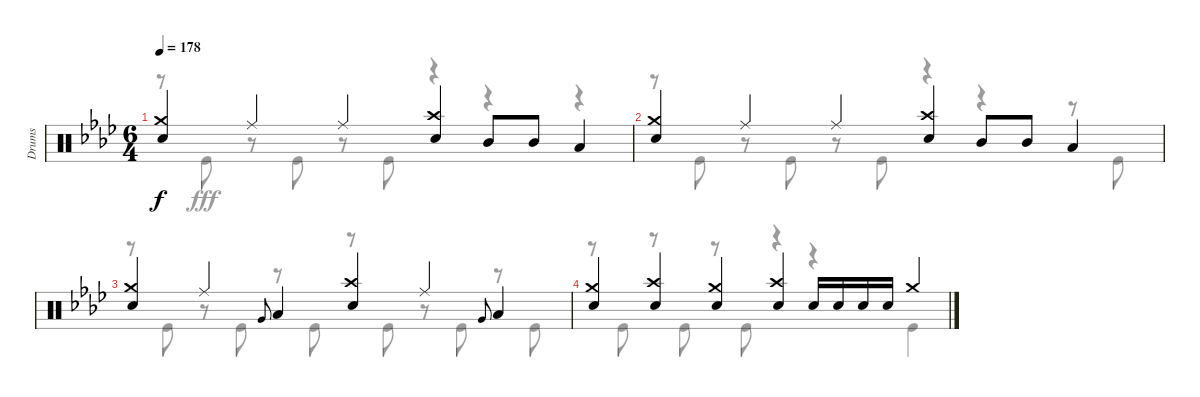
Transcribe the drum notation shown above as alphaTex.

\track ("Drums" "Drums") {instrument percussion}
\staff {score}
\articulation defaults
\voice
\ts (6 4)
\tempo 178
\clef neutral
\ks ab
("Crash medium (hit)" "Snare (hit) 2").4{dy f} "Ride (middle)".4 "Ride (middle)".4 ("Crash high (hit)" "Snare (hit) 2").4 "Mid Tom (hit)".8 "Mid Tom (hit)".8 "Low Tom (hit)".4 |
("Crash medium (hit)" "Snare (hit) 2").4 "Ride (middle)".4 "Ride (middle)".4 ("Crash high (hit)" "Snare (hit) 2").4 "Mid Tom (hit)".8 "Mid Tom (hit)".8 "Low Tom (hit)".4 |
("Crash medium (hit)" "Snare (hit) 2").4 "Ride (middle)".4 "Very Low Tom (hit)".8{gr onbeat} "Low Tom (hit)".4 ("Crash high (hit)" "Snare (hit) 2").4 "Ride (middle)".4 "Very Low Tom (hit)".8{gr onbeat} "Low Tom (hit)".4 |
("Crash medium (hit)" "Snare (hit) 2").4 ("Crash high (hit)" "Snare (hit) 2").4 ("Crash medium (hit)" "Snare (hit) 2").4 ("Crash high (hit)" "Snare (hit) 2").4 "Snare (hit) 2".16 "Snare (hit) 2".16 "Snare (hit) 2".16 "Snare (hit) 2".16 "Crash medium (hit)".4
\voice
\clef neutral
\ottava regular
\simile none
\ks ab
r.8{dy fff} "Kick (hit)".8 r.8 "Kick (hit)".8 r.8 "Kick (hit)".8 r.4 r.4 r.4 |
r.8 "Kick (hit)".8 r.8 "Kick (hit)".8 r.8 "Kick (hit)".8 r.4 r.4 r.8 "Kick (hit)".8 |
r.8 "Kick (hit)".8 r.8 "Kick (hit)".8 r.8 "Kick (hit)".8 r.8 "Kick (hit)".8 r.8 "Kick (hit)".8 r.8 "Kick (hit)".8 |
r.8 "Kick (hit)".8 r.8 "Kick (hit)".8 r.8 "Kick (hit)".8 r.4 r.4 "Kick (hit)".4
